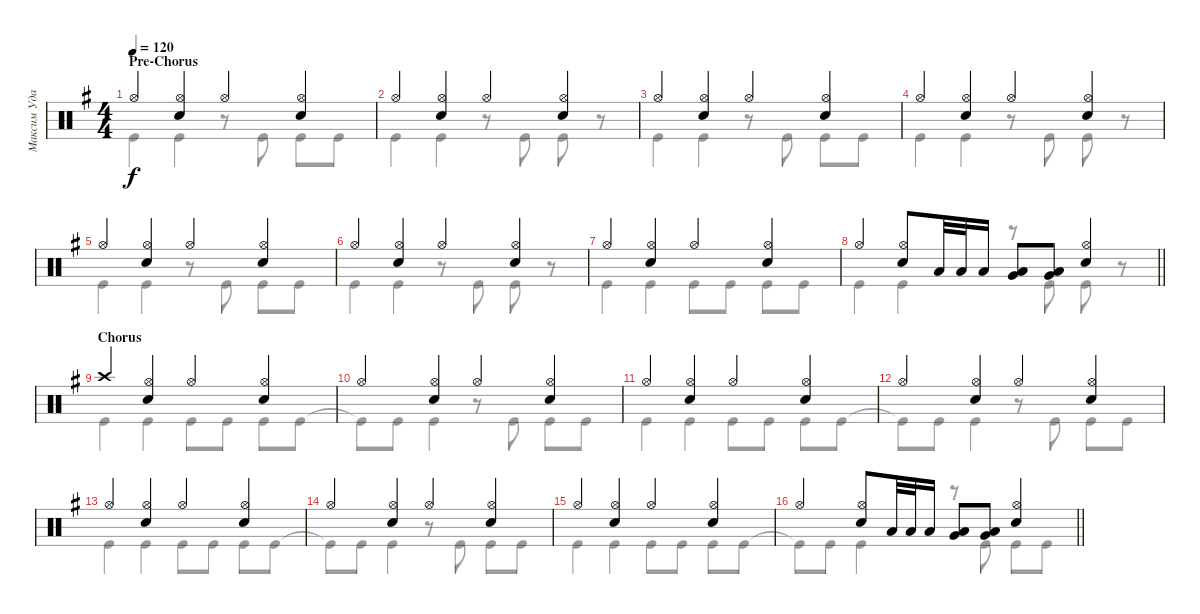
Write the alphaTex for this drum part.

\track ("Максим Удалов" "Максим Уда") {instrument percussion}
\staff {score}
\articulation defaults
\voice
\ts (4 4)
\section ("" "Pre-Chorus")
\tempo 120
\clef neutral
\ks g "Hi-Hat (open)".4{dy f}
("Snare (hit) 2" "Hi-Hat (open)").4 "Hi-Hat (open)".4 ("Snare (hit) 2" "Hi-Hat (open)").4 |
"Hi-Hat (open)".4 ("Snare (hit) 2" "Hi-Hat (open)").4 "Hi-Hat (open)".4 ("Snare (hit) 2" "Hi-Hat (open)").4 |
"Hi-Hat (open)".4 ("Snare (hit) 2" "Hi-Hat (open)").4 "Hi-Hat (open)".4 ("Snare (hit) 2" "Hi-Hat (open)").4 |
"Hi-Hat (open)".4 ("Snare (hit) 2" "Hi-Hat (open)").4 "Hi-Hat (open)".4 ("Snare (hit) 2" "Hi-Hat (open)").4 |
"Hi-Hat (open)".4 ("Snare (hit) 2" "Hi-Hat (open)").4 "Hi-Hat (open)".4 ("Snare (hit) 2" "Hi-Hat (open)").4 |
"Hi-Hat (open)".4 ("Snare (hit) 2" "Hi-Hat (open)").4 "Hi-Hat (open)".4 ("Snare (hit) 2" "Hi-Hat (open)").4 |
"Hi-Hat (open)".4 ("Snare (hit) 2" "Hi-Hat (open)").4 "Hi-Hat (open)".4 ("Snare (hit) 2" "Hi-Hat (open)").4 |
\barLineRight lightlight "Hi-Hat (open)".4
("Hi-Hat (open)" "Snare (hit) 2").8 "Low Tom (hit)".32 "Low Tom (hit)".32 "Low Tom (hit)".16 ("Very Low Tom (hit)" "Low Tom (hit)").8 ("Very Low Tom (hit)" "Low Tom (hit)").8 ("Snare (hit) 2" "Hi-Hat (open)").4 |
\section ("" "Chorus")
"Crash high (hit)".4 ("Snare (hit) 2" "Hi-Hat (open)").4 "Hi-Hat (open)".4 ("Snare (hit) 2" "Hi-Hat (open)").4 |
"Hi-Hat (open)".4 ("Hi-Hat (open)" "Snare (hit) 2").4 "Hi-Hat (open)".4 ("Hi-Hat (open)" "Snare (hit) 2").4 |
"Hi-Hat (open)".4 ("Snare (hit) 2" "Hi-Hat (open)").4 "Hi-Hat (open)".4 ("Snare (hit) 2" "Hi-Hat (open)").4 |
"Hi-Hat (open)".4 ("Hi-Hat (open)" "Snare (hit) 2").4 "Hi-Hat (open)".4 ("Hi-Hat (open)" "Snare (hit) 2").4 |
"Hi-Hat (open)".4 ("Snare (hit) 2" "Hi-Hat (open)").4 "Hi-Hat (open)".4 ("Snare (hit) 2" "Hi-Hat (open)").4 |
"Hi-Hat (open)".4 ("Hi-Hat (open)" "Snare (hit) 2").4 "Hi-Hat (open)".4 ("Hi-Hat (open)" "Snare (hit) 2").4 |
"Hi-Hat (open)".4 ("Snare (hit) 2" "Hi-Hat (open)").4 "Hi-Hat (open)".4 ("Snare (hit) 2" "Hi-Hat (open)").4 |
\barLineRight lightlight "Hi-Hat (open)".4
("Hi-Hat (open)" "Snare (hit) 2").8 "Low Tom (hit)".32 "Low Tom (hit)".32 "Low Tom (hit)".16 ("Very Low Tom (hit)" "Low Tom (hit)").8 ("Very Low Tom (hit)" "Low Tom (hit)").8 ("Snare (hit) 2" "Hi-Hat (open)").4
\voice
\clef neutral
\ottava regular
\simile none
\ks g "Kick (hit)".4{dy f} "Kick (hit)".4
r.8 "Kick (hit)".8 "Kick (hit)".8 "Kick (hit)".8 |
"Kick (hit)".4 "Kick (hit)".4 r.8 "Kick (hit)".8 "Kick (hit)".8 r.8 |
"Kick (hit)".4 "Kick (hit)".4 r.8 "Kick (hit)".8 "Kick (hit)".8 "Kick (hit)".8 |
"Kick (hit)".4 "Kick (hit)".4 r.8 "Kick (hit)".8 "Kick (hit)".8 r.8 |
"Kick (hit)".4 "Kick (hit)".4 r.8 "Kick (hit)".8 "Kick (hit)".8 "Kick (hit)".8 |
"Kick (hit)".4 "Kick (hit)".4 r.8 "Kick (hit)".8 "Kick (hit)".8 r.8 |
"Kick (hit)".4 "Kick (hit)".4 "Kick (hit)".8 "Kick (hit)".8 "Kick (hit)".8 "Kick (hit)".8 |
\barLineRight lightlight "Kick (hit)".4 "Kick (hit)".4
r.8 "Kick (hit)".8 "Kick (hit)".8 r.8 |
"Kick (hit)".4 "Kick (hit)".4 "Kick (hit)".8 "Kick (hit)".8 "Kick (hit)".8 "Kick (hit)".8 |
"Kick (hit)"{t}.8 "Kick (hit)".8 "Kick (hit)".4 r.8 "Kick (hit)".8 "Kick (hit)".8 "Kick (hit)".8 |
"Kick (hit)".4 "Kick (hit)".4 "Kick (hit)".8 "Kick (hit)".8 "Kick (hit)".8 "Kick (hit)".8 |
"Kick (hit)"{t}.8 "Kick (hit)".8 "Kick (hit)".4 r.8 "Kick (hit)".8 "Kick (hit)".8 "Kick (hit)".8 |
"Kick (hit)".4 "Kick (hit)".4 "Kick (hit)".8 "Kick (hit)".8 "Kick (hit)".8 "Kick (hit)".8 |
"Kick (hit)"{t}.8 "Kick (hit)".8 "Kick (hit)".4 r.8 "Kick (hit)".8 "Kick (hit)".8 "Kick (hit)".8 |
"Kick (hit)".4 "Kick (hit)".4 "Kick (hit)".8 "Kick (hit)".8 "Kick (hit)".8 "Kick (hit)".8 |
\barLineRight lightlight "Kick (hit)"{t}.8 "Kick (hit)".8 "Kick (hit)".4
r.8 "Kick (hit)".8 "Kick (hit)".8 "Kick (hit)".8
